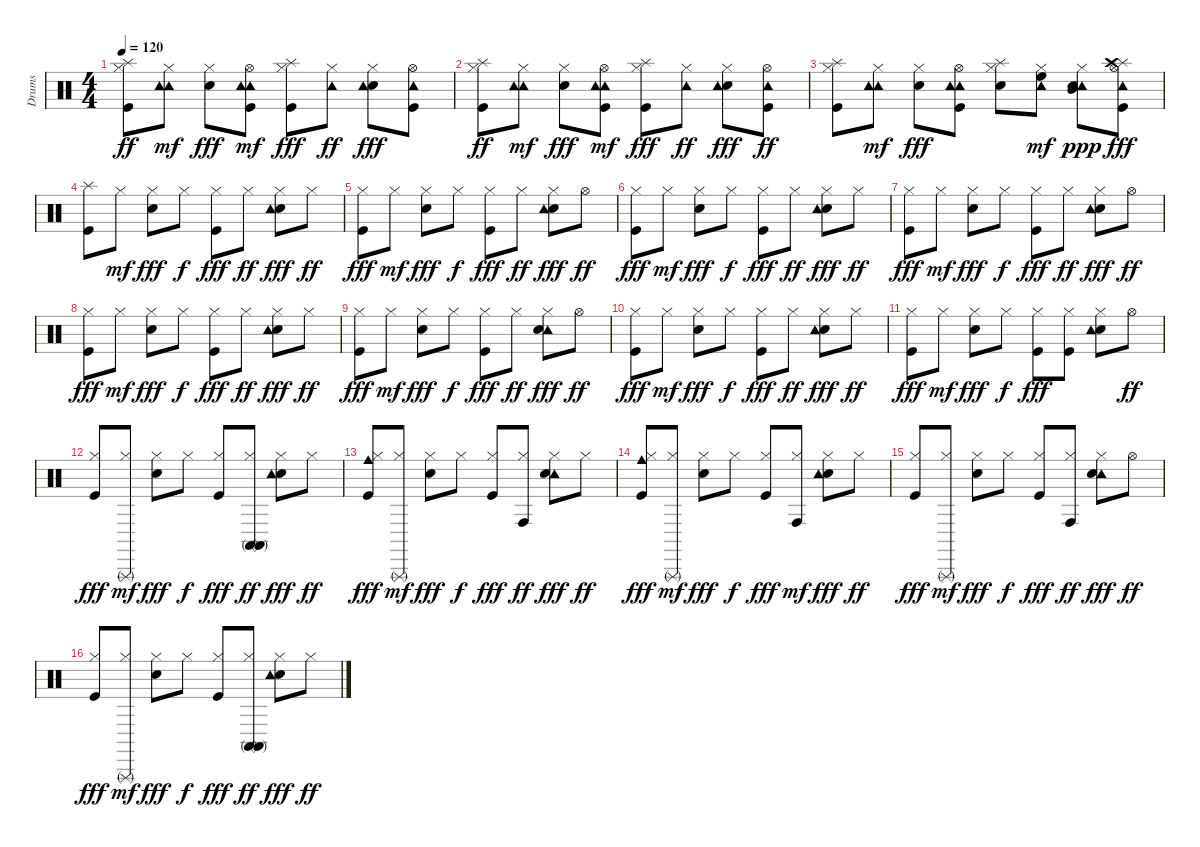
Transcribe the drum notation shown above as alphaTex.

\track ("Drums " "Drums ") {instrument percussion}
\staff {score}
\articulation defaults
\ts (4 4)
\tempo 120
\clef neutral
\ks c
("Hi-Hat (closed)" "Kick (hit)" "Splash (hit)").8{dy ff} ("Tambourine (hit)" "Hi-Hat (closed)" "Tambourine (hit)").8{dy mf} ("Hi-Hat (closed)" "Electric Snare (hit)").8{dy fff} ("Kick (hit)" "Tambourine (hit)" "Tambourine (hit)" "Hi-Hat (open)").8{dy mf} ("Kick (hit)" "Splash (hit)" "Hi-Hat (closed)").8{dy fff} ("Tambourine (hit)" "Hi-Hat (closed)").8{dy ff} ("Electric Snare (hit)" "Tambourine (hit)" "Hi-Hat (closed)").8{dy fff} ("Tambourine (hit)" "Hi-Hat (open)" "Kick (hit)").8 |
("Hi-Hat (closed)" "Kick (hit)" "Splash (hit)").8{dy ff} ("Tambourine (hit)" "Hi-Hat (closed)" "Tambourine (hit)").8{dy mf} ("Hi-Hat (closed)" "Electric Snare (hit)").8{dy fff} ("Tambourine (hit)" "Kick (hit)" "Tambourine (hit)" "Hi-Hat (open)").8{dy mf} ("Kick (hit)" "Splash (hit)" "Hi-Hat (closed)").8{dy fff} ("Tambourine (hit)" "Hi-Hat (closed)").8{dy ff} ("Electric Snare (hit)" "Hi-Hat (closed)" "Tambourine (hit)").8{dy fff} ("Kick (hit)" "Tambourine (hit)" "Hi-Hat (open)").8{dy ff} |
("Hi-Hat (closed)" "Kick (hit)" "Splash (hit)").8 ("Tambourine (hit)" "Hi-Hat (closed)" "Tambourine (hit)").8{dy mf} ("Hi-Hat (closed)" "Electric Snare (hit)").8{dy fff} ("Kick (hit)" "Tambourine (hit)" "Hi-Hat (open)" "Tambourine (hit)").8 ("Splash (hit)" "Hi-Hat (closed)" "Electric Snare (hit)").8 ("Hi-Hat (closed)" "Tambourine (hit)" "High Floor Tom (hit)").8{dy mf} ("Tambourine (hit)" "Hi-Hat (closed)" "Mid Tom (hit)" "Electric Snare (hit)").8{dy ppp} ("Tambourine (hit)" "Hi-Hat (open)" "Kick (hit)" "Splash (hit)" "Crash high (hit)").8{dy fff} |
("Splash (hit)" "Kick (hit)").8 "Hi-Hat (closed)".8{dy mf} ("Electric Snare (hit)" "Hi-Hat (closed)").8{dy fff} "Hi-Hat (closed)".8{dy f} ("Hi-Hat (closed)" "Kick (hit)").8{dy fff} "Hi-Hat (closed)".8{dy ff} ("Electric Snare (hit)" "Tambourine (hit)" "Hi-Hat (closed)").8{dy fff} "Hi-Hat (closed)".8{dy ff} |
("Hi-Hat (closed)" "Kick (hit)").8{dy fff} "Hi-Hat (closed)".8{dy mf} ("Hi-Hat (closed)" "Electric Snare (hit)").8{dy fff} "Hi-Hat (closed)".8{dy f} ("Hi-Hat (closed)" "Kick (hit)").8{dy fff} "Hi-Hat (closed)".8{dy ff} ("Electric Snare (hit)" "Tambourine (hit)" "Hi-Hat (closed)").8{dy fff} "Hi-Hat (open)".8{dy ff} |
("Hi-Hat (closed)" "Kick (hit)").8{dy fff} "Hi-Hat (closed)".8{dy mf} ("Hi-Hat (closed)" "Electric Snare (hit)").8{dy fff} "Hi-Hat (closed)".8{dy f} ("Hi-Hat (closed)" "Kick (hit)").8{dy fff} "Hi-Hat (closed)".8{dy ff} ("Electric Snare (hit)" "Tambourine (hit)" "Hi-Hat (closed)").8{dy fff} "Hi-Hat (closed)".8{dy ff} |
("Hi-Hat (closed)" "Kick (hit)").8{dy fff} "Hi-Hat (closed)".8{dy mf} ("Electric Snare (hit)" "Hi-Hat (closed)").8{dy fff} "Hi-Hat (closed)".8{dy f} ("Hi-Hat (closed)" "Kick (hit)").8{dy fff} "Hi-Hat (closed)".8{dy ff} ("Electric Snare (hit)" "Tambourine (hit)" "Hi-Hat (closed)").8{dy fff} "Hi-Hat (open)".8{dy ff} |
("Hi-Hat (closed)" "Kick (hit)").8{dy fff} "Hi-Hat (closed)".8{dy mf} ("Hi-Hat (closed)" "Electric Snare (hit)").8{dy fff} "Hi-Hat (closed)".8{dy f} ("Hi-Hat (closed)" "Kick (hit)").8{dy fff} "Hi-Hat (closed)".8{dy ff} ("Electric Snare (hit)" "Tambourine (hit)" "Hi-Hat (closed)").8{dy fff} "Hi-Hat (closed)".8{dy ff} |
("Hi-Hat (closed)" "Kick (hit)").8{dy fff} "Hi-Hat (closed)".8{dy mf} ("Hi-Hat (closed)" "Electric Snare (hit)").8{dy fff} "Hi-Hat (closed)".8{dy f} ("Hi-Hat (closed)" "Kick (hit)").8{dy fff} "Hi-Hat (closed)".8{dy ff} ("Tambourine (hit)" "Hi-Hat (closed)" "Electric Snare (hit)").8{dy fff} "Hi-Hat (open)".8{dy ff} |
("Hi-Hat (closed)" "Kick (hit)").8{dy fff} "Hi-Hat (closed)".8{dy mf} ("Hi-Hat (closed)" "Electric Snare (hit)").8{dy fff} "Hi-Hat (closed)".8{dy f} ("Hi-Hat (closed)" "Kick (hit)").8{dy fff} "Hi-Hat (closed)".8{dy ff} ("Electric Snare (hit)" "Tambourine (hit)" "Hi-Hat (closed)").8{dy fff} "Hi-Hat (closed)".8{dy ff} |
("Hi-Hat (closed)" "Kick (hit)").8{dy fff} "Hi-Hat (closed)".8{dy mf} ("Hi-Hat (closed)" "Electric Snare (hit)").8{dy fff} "Hi-Hat (closed)".8{dy f} ("Hi-Hat (closed)" "Kick (hit)").8{dy fff} ("Hi-Hat (closed)" "Kick (hit)").8 ("Electric Snare (hit)" "Hi-Hat (closed)" "Tambourine (hit)").8 "Hi-Hat (open)".8{dy ff} |
("Hi-Hat (closed)" "Kick (hit)").8{dy fff} ("Triangle (rnute)" "Hi-Hat (closed)").8{dy mf} ("Hi-Hat (closed)" "Electric Snare (hit)").8{dy fff} "Hi-Hat (closed)".8{dy f} ("Hi-Hat (closed)" "Kick (hit)").8{dy fff} ("Conga high (mute)" "Hi-Hat (closed)" "Conga high (mute)").8{dy ff} ("Electric Snare (hit)" "Tambourine (hit)" "Hi-Hat (closed)").8{dy fff} "Hi-Hat (closed)".8{dy ff} |
("Hi-Hat (closed)" "Kick (hit)" "Cowbell medium (hit)").8{dy fff} ("Triangle (rnute)" "Hi-Hat (closed)").8{dy mf} ("Hi-Hat (closed)" "Electric Snare (hit)").8{dy fff} "Hi-Hat (closed)".8{dy f} ("Hi-Hat (closed)" "Kick (hit)").8{dy fff} ("Conga high (hit)" "Hi-Hat (closed)").8{dy ff} ("Tambourine (hit)" "Hi-Hat (closed)" "Electric Snare (hit)").8{dy fff} "Hi-Hat (closed)".8{dy ff} |
("Hi-Hat (closed)" "Kick (hit)" "Cowbell medium (hit)").8{dy fff} ("Triangle (rnute)" "Hi-Hat (closed)").8{dy mf} ("Hi-Hat (closed)" "Electric Snare (hit)").8{dy fff} "Hi-Hat (closed)".8{dy f} ("Kick (hit)" "Hi-Hat (closed)").8{dy fff} ("Hi-Hat (closed)" "Conga high (hit)").8{dy mf} ("Electric Snare (hit)" "Tambourine (hit)" "Hi-Hat (closed)").8{dy fff} "Hi-Hat (closed)".8{dy ff} |
("Hi-Hat (closed)" "Kick (hit)").8{dy fff} ("Triangle (rnute)" "Hi-Hat (closed)").8{dy mf} ("Hi-Hat (closed)" "Electric Snare (hit)").8{dy fff} "Hi-Hat (closed)".8{dy f} ("Hi-Hat (closed)" "Kick (hit)").8{dy fff} ("Conga high (hit)" "Hi-Hat (closed)").8{dy ff} ("Tambourine (hit)" "Hi-Hat (closed)" "Electric Snare (hit)").8{dy fff} "Hi-Hat (open)".8{dy ff} |
("Hi-Hat (closed)" "Kick (hit)").8{dy fff} ("Triangle (rnute)" "Hi-Hat (closed)").8{dy mf} ("Hi-Hat (closed)" "Electric Snare (hit)").8{dy fff} "Hi-Hat (closed)".8{dy f} ("Hi-Hat (closed)" "Kick (hit)").8{dy fff} ("Conga high (mute)" "Hi-Hat (closed)" "Conga high (mute)").8{dy ff} ("Electric Snare (hit)" "Hi-Hat (closed)" "Tambourine (hit)").8{dy fff} "Hi-Hat (closed)".8{dy ff}
